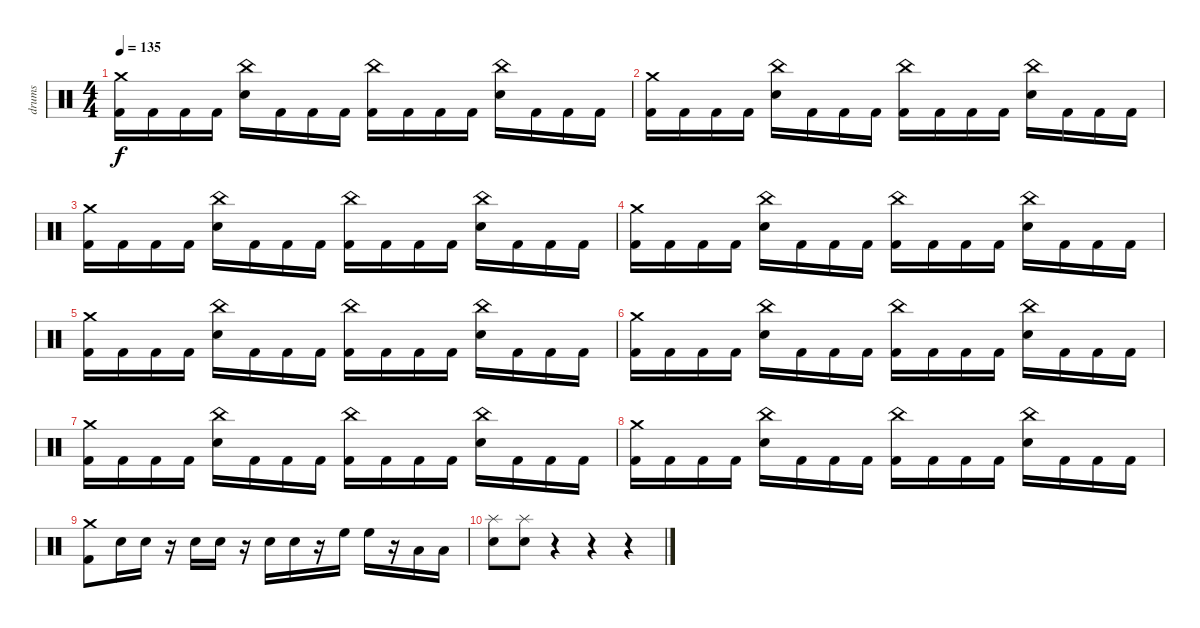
\track ("drums" "drums") {instrument percussion}
\staff {score}
\articulation defaults
\ts (4 4)
\tempo 135
\clef neutral
\ks c
("Crash medium (hit)" "Kick (hit) 2").16{dy f} "Kick (hit) 2".16 "Kick (hit) 2".16 "Kick (hit) 2".16 ("China (hit)" "Electric Snare (hit)").16 "Kick (hit) 2".16 "Kick (hit) 2".16 "Kick (hit) 2".16 ("China (hit)" "Kick (hit) 2").16 "Kick (hit) 2".16 "Kick (hit) 2".16 "Kick (hit) 2".16 ("China (hit)" "Electric Snare (hit)").16 "Kick (hit) 2".16 "Kick (hit) 2".16 "Kick (hit) 2".16 |
("Crash medium (hit)" "Kick (hit) 2").16 "Kick (hit) 2".16 "Kick (hit) 2".16 "Kick (hit) 2".16 ("China (hit)" "Electric Snare (hit)").16 "Kick (hit) 2".16 "Kick (hit) 2".16 "Kick (hit) 2".16 ("China (hit)" "Kick (hit) 2").16 "Kick (hit) 2".16 "Kick (hit) 2".16 "Kick (hit) 2".16 ("China (hit)" "Electric Snare (hit)").16 "Kick (hit) 2".16 "Kick (hit) 2".16 "Kick (hit) 2".16 |
("Crash medium (hit)" "Kick (hit) 2").16 "Kick (hit) 2".16 "Kick (hit) 2".16 "Kick (hit) 2".16 ("China (hit)" "Electric Snare (hit)").16 "Kick (hit) 2".16 "Kick (hit) 2".16 "Kick (hit) 2".16 ("China (hit)" "Kick (hit) 2").16 "Kick (hit) 2".16 "Kick (hit) 2".16 "Kick (hit) 2".16 ("China (hit)" "Electric Snare (hit)").16 "Kick (hit) 2".16 "Kick (hit) 2".16 "Kick (hit) 2".16 |
("Crash medium (hit)" "Kick (hit) 2").16 "Kick (hit) 2".16 "Kick (hit) 2".16 "Kick (hit) 2".16 ("China (hit)" "Electric Snare (hit)").16 "Kick (hit) 2".16 "Kick (hit) 2".16 "Kick (hit) 2".16 ("China (hit)" "Kick (hit) 2").16 "Kick (hit) 2".16 "Kick (hit) 2".16 "Kick (hit) 2".16 ("China (hit)" "Electric Snare (hit)").16 "Kick (hit) 2".16 "Kick (hit) 2".16 "Kick (hit) 2".16 |
("Crash medium (hit)" "Kick (hit) 2").16 "Kick (hit) 2".16 "Kick (hit) 2".16 "Kick (hit) 2".16 ("China (hit)" "Electric Snare (hit)").16 "Kick (hit) 2".16 "Kick (hit) 2".16 "Kick (hit) 2".16 ("China (hit)" "Kick (hit) 2").16 "Kick (hit) 2".16 "Kick (hit) 2".16 "Kick (hit) 2".16 ("China (hit)" "Electric Snare (hit)").16 "Kick (hit) 2".16 "Kick (hit) 2".16 "Kick (hit) 2".16 |
("Crash medium (hit)" "Kick (hit) 2").16 "Kick (hit) 2".16 "Kick (hit) 2".16 "Kick (hit) 2".16 ("China (hit)" "Electric Snare (hit)").16 "Kick (hit) 2".16 "Kick (hit) 2".16 "Kick (hit) 2".16 ("China (hit)" "Kick (hit) 2").16 "Kick (hit) 2".16 "Kick (hit) 2".16 "Kick (hit) 2".16 ("China (hit)" "Electric Snare (hit)").16 "Kick (hit) 2".16 "Kick (hit) 2".16 "Kick (hit) 2".16 |
("Crash medium (hit)" "Kick (hit) 2").16 "Kick (hit) 2".16 "Kick (hit) 2".16 "Kick (hit) 2".16 ("China (hit)" "Electric Snare (hit)").16 "Kick (hit) 2".16 "Kick (hit) 2".16 "Kick (hit) 2".16 ("China (hit)" "Kick (hit) 2").16 "Kick (hit) 2".16 "Kick (hit) 2".16 "Kick (hit) 2".16 ("China (hit)" "Electric Snare (hit)").16 "Kick (hit) 2".16 "Kick (hit) 2".16 "Kick (hit) 2".16 |
("Crash medium (hit)" "Kick (hit) 2").16 "Kick (hit) 2".16 "Kick (hit) 2".16 "Kick (hit) 2".16 ("China (hit)" "Electric Snare (hit)").16 "Kick (hit) 2".16 "Kick (hit) 2".16 "Kick (hit) 2".16 ("China (hit)" "Kick (hit) 2").16 "Kick (hit) 2".16 "Kick (hit) 2".16 "Kick (hit) 2".16 ("China (hit)" "Electric Snare (hit)").16 "Kick (hit) 2".16 "Kick (hit) 2".16 "Kick (hit) 2".16 |
("Crash medium (hit)" "Kick (hit) 2").8 "Electric Snare (hit)".16 "Electric Snare (hit)".16 r.16 "Electric Snare (hit)".16 "Electric Snare (hit)".16 r.16 "Electric Snare (hit)".16 "Electric Snare (hit)".16 r.16 "High Floor Tom (hit)".16 "High Floor Tom (hit)".16 r.16 "Low Tom (hit)".16 "Low Tom (hit)".16 |
("Splash (hit)" "Electric Snare (hit)").8 ("Splash (hit)" "Electric Snare (hit)").8 r.4 r.4 r.4
